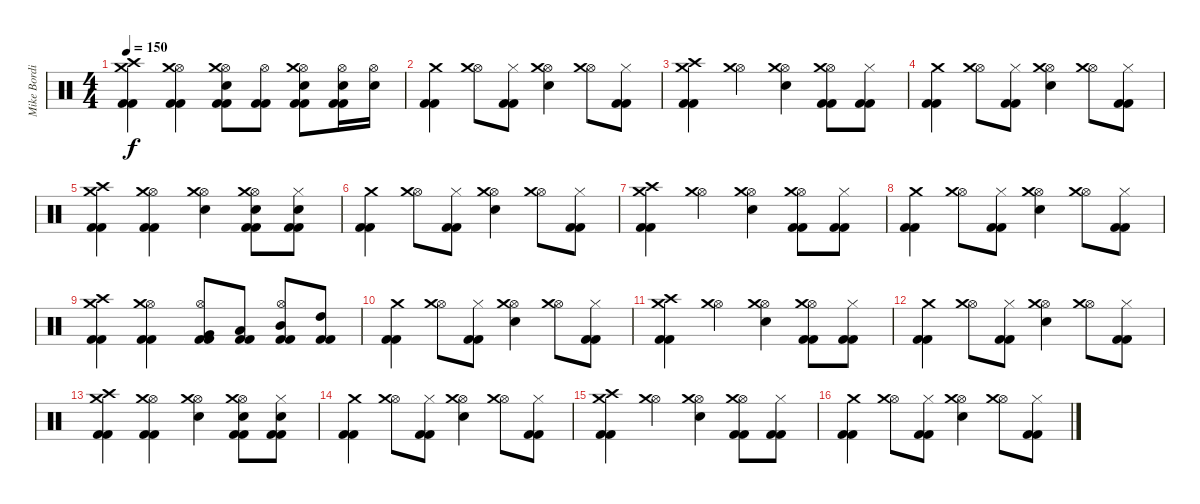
\track ("Mike Bordin" "Mike Bordi") {instrument percussion}
\staff {score}
\articulation defaults
\ts (4 4)
\tempo 150
\clef neutral
\ks c
("Crash high (hit)" "Crash medium (hit)" "Kick (hit) 2" "Kick (hit) 2").4{dy f} ("Hi-Hat (open)" "Crash medium (hit)" "Kick (hit) 2" "Kick (hit) 2").4 ("Hi-Hat (open)" "Crash medium (hit)" "Electric Snare (hit)" "Kick (hit) 2" "Kick (hit) 2").8 ("Hi-Hat (open)" "Kick (hit) 2" "Kick (hit) 2").8 ("Hi-Hat (open)" "Crash medium (hit)" "Electric Snare (hit)" "Kick (hit) 2" "Kick (hit) 2").8 ("Hi-Hat (open)" "Electric Snare (hit)" "Kick (hit) 2" "Kick (hit) 2").16 ("Hi-Hat (open)" "Electric Snare (hit)").16 |
("Crash medium (hit)" "Kick (hit) 2" "Kick (hit) 2").4 ("Hi-Hat (open)" "Crash medium (hit)").8 ("Hi-Hat (closed)" "Kick (hit) 2" "Kick (hit) 2").8 ("Hi-Hat (open)" "Crash medium (hit)" "Electric Snare (hit)").4 ("Hi-Hat (open)" "Crash medium (hit)").8 ("Hi-Hat (closed)" "Kick (hit) 2" "Kick (hit) 2").8 |
("Crash high (hit)" "Crash medium (hit)" "Kick (hit) 2" "Kick (hit) 2").4 ("Hi-Hat (open)" "Crash medium (hit)").4 ("Hi-Hat (open)" "Crash medium (hit)" "Electric Snare (hit)").4 ("Hi-Hat (open)" "Crash medium (hit)" "Kick (hit) 2" "Kick (hit) 2").8 ("Hi-Hat (closed)" "Kick (hit) 2" "Kick (hit) 2").8 |
("Crash medium (hit)" "Kick (hit) 2" "Kick (hit) 2").4 ("Hi-Hat (open)" "Crash medium (hit)").8 ("Hi-Hat (closed)" "Kick (hit) 2" "Kick (hit) 2").8 ("Hi-Hat (open)" "Crash medium (hit)" "Electric Snare (hit)").4 ("Hi-Hat (open)" "Crash medium (hit)").8 ("Hi-Hat (closed)" "Kick (hit) 2" "Kick (hit) 2").8 |
("Crash high (hit)" "Crash medium (hit)" "Kick (hit) 2" "Kick (hit) 2").4 ("Hi-Hat (open)" "Crash medium (hit)" "Kick (hit) 2" "Kick (hit) 2").4 ("Hi-Hat (open)" "Crash medium (hit)" "Electric Snare (hit)").4 ("Hi-Hat (open)" "Crash medium (hit)" "Electric Snare (hit)" "Kick (hit) 2" "Kick (hit) 2").8 ("Hi-Hat (closed)" "Electric Snare (hit)" "Kick (hit) 2" "Kick (hit) 2").8 |
("Crash medium (hit)" "Kick (hit) 2" "Kick (hit) 2").4 ("Hi-Hat (open)" "Crash medium (hit)").8 ("Hi-Hat (closed)" "Kick (hit) 2" "Kick (hit) 2").8 ("Hi-Hat (open)" "Crash medium (hit)" "Electric Snare (hit)").4 ("Hi-Hat (open)" "Crash medium (hit)").8 ("Hi-Hat (closed)" "Kick (hit) 2" "Kick (hit) 2").8 |
("Crash high (hit)" "Crash medium (hit)" "Kick (hit) 2" "Kick (hit) 2").4 ("Hi-Hat (open)" "Crash medium (hit)").4 ("Hi-Hat (open)" "Crash medium (hit)" "Electric Snare (hit)").4 ("Hi-Hat (open)" "Crash medium (hit)" "Kick (hit) 2" "Kick (hit) 2").8 ("Hi-Hat (closed)" "Kick (hit) 2" "Kick (hit) 2").8 |
("Crash medium (hit)" "Kick (hit) 2" "Kick (hit) 2").4 ("Hi-Hat (open)" "Crash medium (hit)").8 ("Hi-Hat (closed)" "Kick (hit) 2" "Kick (hit) 2").8 ("Hi-Hat (open)" "Crash medium (hit)" "Electric Snare (hit)").4 ("Hi-Hat (open)" "Crash medium (hit)").8 ("Hi-Hat (closed)" "Kick (hit) 2" "Kick (hit) 2").8 |
("Crash high (hit)" "Crash medium (hit)" "Kick (hit) 2" "Kick (hit) 2").4 ("Hi-Hat (open)" "Crash medium (hit)" "Kick (hit) 2" "Kick (hit) 2").4 ("Hi-Hat (open)" "Very Low Tom (hit)" "Kick (hit) 2" "Kick (hit) 2").8 ("Low Tom (hit)" "Kick (hit) 2" "Kick (hit) 2").8 ("Hi-Hat (open)" "Mid Tom (hit)" "Kick (hit) 2" "Kick (hit) 2").8 ("High Tom (hit)" "Kick (hit) 2" "Kick (hit) 2").8 |
("Crash medium (hit)" "Kick (hit) 2" "Kick (hit) 2").4 ("Hi-Hat (open)" "Crash medium (hit)").8 ("Hi-Hat (closed)" "Kick (hit) 2" "Kick (hit) 2").8 ("Hi-Hat (open)" "Crash medium (hit)" "Electric Snare (hit)").4 ("Hi-Hat (open)" "Crash medium (hit)").8 ("Hi-Hat (closed)" "Kick (hit) 2" "Kick (hit) 2").8 |
("Crash high (hit)" "Crash medium (hit)" "Kick (hit) 2" "Kick (hit) 2").4 ("Hi-Hat (open)" "Crash medium (hit)").4 ("Hi-Hat (open)" "Crash medium (hit)" "Electric Snare (hit)").4 ("Hi-Hat (open)" "Crash medium (hit)" "Kick (hit) 2" "Kick (hit) 2").8 ("Hi-Hat (closed)" "Kick (hit) 2" "Kick (hit) 2").8 |
("Crash medium (hit)" "Kick (hit) 2" "Kick (hit) 2").4 ("Hi-Hat (open)" "Crash medium (hit)").8 ("Hi-Hat (closed)" "Kick (hit) 2" "Kick (hit) 2").8 ("Hi-Hat (open)" "Crash medium (hit)" "Electric Snare (hit)").4 ("Hi-Hat (open)" "Crash medium (hit)").8 ("Hi-Hat (closed)" "Kick (hit) 2" "Kick (hit) 2").8 |
("Crash high (hit)" "Crash medium (hit)" "Kick (hit) 2" "Kick (hit) 2").4 ("Hi-Hat (open)" "Crash medium (hit)" "Kick (hit) 2" "Kick (hit) 2").4 ("Hi-Hat (open)" "Crash medium (hit)" "Electric Snare (hit)").4 ("Hi-Hat (open)" "Crash medium (hit)" "Electric Snare (hit)" "Kick (hit) 2" "Kick (hit) 2").8 ("Hi-Hat (closed)" "Electric Snare (hit)" "Kick (hit) 2" "Kick (hit) 2").8 |
("Crash medium (hit)" "Kick (hit) 2" "Kick (hit) 2").4 ("Hi-Hat (open)" "Crash medium (hit)").8 ("Hi-Hat (closed)" "Kick (hit) 2" "Kick (hit) 2").8 ("Hi-Hat (open)" "Crash medium (hit)" "Electric Snare (hit)").4 ("Hi-Hat (open)" "Crash medium (hit)").8 ("Hi-Hat (closed)" "Kick (hit) 2" "Kick (hit) 2").8 |
("Crash high (hit)" "Crash medium (hit)" "Kick (hit) 2" "Kick (hit) 2").4 ("Hi-Hat (open)" "Crash medium (hit)").4 ("Hi-Hat (open)" "Crash medium (hit)" "Electric Snare (hit)").4 ("Hi-Hat (open)" "Crash medium (hit)" "Kick (hit) 2" "Kick (hit) 2").8 ("Hi-Hat (closed)" "Kick (hit) 2" "Kick (hit) 2").8 |
("Crash medium (hit)" "Kick (hit) 2" "Kick (hit) 2").4 ("Hi-Hat (open)" "Crash medium (hit)").8 ("Hi-Hat (closed)" "Kick (hit) 2" "Kick (hit) 2").8 ("Hi-Hat (open)" "Crash medium (hit)" "Electric Snare (hit)").4 ("Hi-Hat (open)" "Crash medium (hit)").8 ("Hi-Hat (closed)" "Kick (hit) 2" "Kick (hit) 2").8
